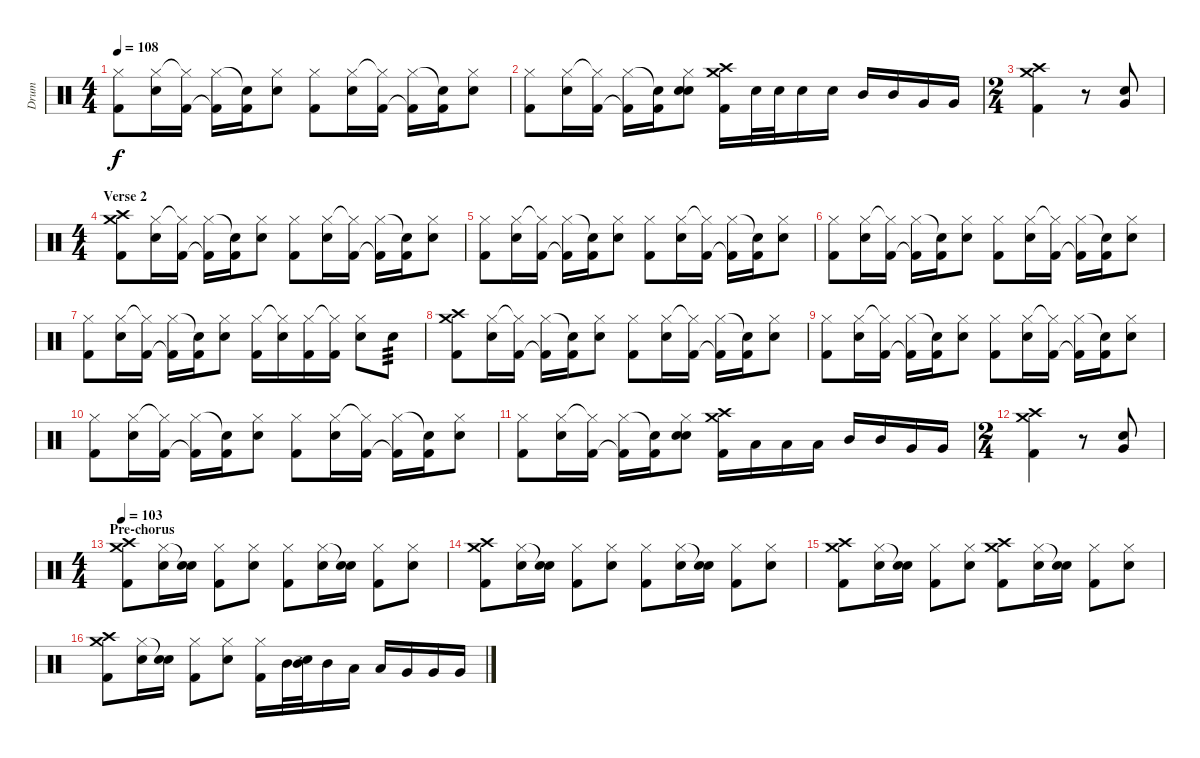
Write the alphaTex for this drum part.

\track ("Drum" "Drum") {instrument percussion}
\staff {score}
\articulation defaults
\ts (4 4)
\tempo 108
\clef neutral
\ks c
("Hi-Hat (closed)" "Kick (hit) 2").8{dy f} ("Hi-Hat (closed)" "Electric Snare (hit)").16 ("Hi-Hat (closed)"{t} "Kick (hit) 2").16 ("Hi-Hat (closed)" "Kick (hit) 2"{t}).16 ("Snare (hit)"{t} "Kick (hit) 2").16 ("Hi-Hat (closed)" "Electric Snare (hit)").8 ("Hi-Hat (closed)" "Kick (hit) 2").8 ("Hi-Hat (closed)" "Electric Snare (hit)").16 ("Hi-Hat (closed)"{t} "Kick (hit) 2").16 ("Hi-Hat (closed)" "Kick (hit) 2"{t}).16 ("Snare (hit)"{t} "Kick (hit) 2").16 ("Hi-Hat (closed)" "Electric Snare (hit)").8 |
("Hi-Hat (closed)" "Kick (hit) 2").8 ("Hi-Hat (closed)" "Electric Snare (hit)").16 ("Hi-Hat (closed)"{t} "Kick (hit) 2").16 ("Hi-Hat (closed)" "Kick (hit) 2"{t}).16 ("Snare (hit)"{t} "Kick (hit) 2").16 ("Hi-Hat (closed)" "Electric Snare (hit)" "Electric Snare (hit)").8 ("Crash medium (hit)" "Crash high (hit)" "Kick (hit) 2").16 "Electric Snare (hit)".32 "Electric Snare (hit)".32 "Electric Snare (hit)".16 "Electric Snare (hit)".16 "Mid Tom (hit)".16 "Mid Tom (hit)".16 "Very Low Tom (hit)".16 "Very Low Tom (hit)".16 |
\ts (2 4)
("Crash medium (hit)" "Crash high (hit)" "Kick (hit) 2").4 r.8 ("Very Low Tom (hit)" "Electric Snare (hit)").8 |
\ts (4 4)
\section ("" "Verse 2")
("Crash medium (hit)" "Crash high (hit)" "Kick (hit) 2").8 ("Hi-Hat (closed)" "Electric Snare (hit)").16 ("Hi-Hat (closed)"{t} "Kick (hit) 2").16 ("Hi-Hat (closed)" "Kick (hit) 2"{t}).16 ("Snare (hit)"{t} "Kick (hit) 2").16 ("Hi-Hat (closed)" "Electric Snare (hit)").8 ("Hi-Hat (closed)" "Kick (hit) 2").8 ("Hi-Hat (closed)" "Electric Snare (hit)").16 ("Hi-Hat (closed)"{t} "Kick (hit) 2").16 ("Hi-Hat (closed)" "Kick (hit) 2"{t}).16 ("Snare (hit)"{t} "Kick (hit) 2").16 ("Hi-Hat (closed)" "Electric Snare (hit)").8 |
("Hi-Hat (closed)" "Kick (hit) 2").8 ("Hi-Hat (closed)" "Electric Snare (hit)").16 ("Hi-Hat (closed)"{t} "Kick (hit) 2").16 ("Hi-Hat (closed)" "Kick (hit) 2"{t}).16 ("Snare (hit)"{t} "Kick (hit) 2").16 ("Hi-Hat (closed)" "Electric Snare (hit)").8 ("Hi-Hat (closed)" "Kick (hit) 2").8 ("Hi-Hat (closed)" "Electric Snare (hit)").16 ("Hi-Hat (closed)"{t} "Kick (hit) 2").16 ("Hi-Hat (closed)" "Kick (hit) 2"{t}).16 ("Snare (hit)"{t} "Kick (hit) 2").16 ("Hi-Hat (closed)" "Electric Snare (hit)").8 |
("Hi-Hat (closed)" "Kick (hit) 2").8 ("Hi-Hat (closed)" "Electric Snare (hit)").16 ("Hi-Hat (closed)"{t} "Kick (hit) 2").16 ("Hi-Hat (closed)" "Kick (hit) 2"{t}).16 ("Snare (hit)"{t} "Kick (hit) 2").16 ("Hi-Hat (closed)" "Electric Snare (hit)").8 ("Hi-Hat (closed)" "Kick (hit) 2").8 ("Hi-Hat (closed)" "Electric Snare (hit)").16 ("Hi-Hat (closed)"{t} "Kick (hit) 2").16 ("Hi-Hat (closed)" "Kick (hit) 2"{t}).16 ("Snare (hit)"{t} "Kick (hit) 2").16 ("Hi-Hat (closed)" "Electric Snare (hit)").8 |
("Hi-Hat (closed)" "Kick (hit) 2").8 ("Hi-Hat (closed)" "Electric Snare (hit)").16 ("Hi-Hat (closed)"{t} "Kick (hit) 2").16 ("Hi-Hat (closed)" "Kick (hit) 2"{t}).16 ("Snare (hit)"{t} "Kick (hit) 2").16 ("Hi-Hat (closed)" "Electric Snare (hit)").8 ("Hi-Hat (closed)" "Kick (hit) 2").16 ("Hi-Hat (closed)"{t} "Electric Snare (hit)").16 ("Hi-Hat (closed)" "Kick (hit) 2").16 ("Hi-Hat (closed)"{t} "Kick (hit) 2").16 ("Hi-Hat (closed)" "Electric Snare (hit)").8 "Electric Snare (hit)".8{tp 3} |
("Crash medium (hit)" "Crash high (hit)" "Kick (hit) 2").8 ("Hi-Hat (closed)" "Electric Snare (hit)").16 ("Hi-Hat (closed)"{t} "Kick (hit) 2").16 ("Hi-Hat (closed)" "Kick (hit) 2"{t}).16 ("Snare (hit)"{t} "Kick (hit) 2").16 ("Hi-Hat (closed)" "Electric Snare (hit)").8 ("Hi-Hat (closed)" "Kick (hit) 2").8 ("Hi-Hat (closed)" "Electric Snare (hit)").16 ("Hi-Hat (closed)"{t} "Kick (hit) 2").16 ("Hi-Hat (closed)" "Kick (hit) 2"{t}).16 ("Snare (hit)"{t} "Kick (hit) 2").16 ("Hi-Hat (closed)" "Electric Snare (hit)").8 |
("Hi-Hat (closed)" "Kick (hit) 2").8 ("Hi-Hat (closed)" "Electric Snare (hit)").16 ("Hi-Hat (closed)"{t} "Kick (hit) 2").16 ("Hi-Hat (closed)" "Kick (hit) 2"{t}).16 ("Snare (hit)"{t} "Kick (hit) 2").16 ("Hi-Hat (closed)" "Electric Snare (hit)").8 ("Hi-Hat (closed)" "Kick (hit) 2").8 ("Hi-Hat (closed)" "Electric Snare (hit)").16 ("Hi-Hat (closed)"{t} "Kick (hit) 2").16 ("Hi-Hat (closed)" "Kick (hit) 2"{t}).16 ("Snare (hit)"{t} "Kick (hit) 2").16 ("Hi-Hat (closed)" "Electric Snare (hit)").8 |
("Hi-Hat (closed)" "Kick (hit) 2").8 ("Hi-Hat (closed)" "Electric Snare (hit)").16 ("Hi-Hat (closed)"{t} "Kick (hit) 2").16 ("Hi-Hat (closed)" "Kick (hit) 2"{t}).16 ("Snare (hit)"{t} "Kick (hit) 2").16 ("Hi-Hat (closed)" "Electric Snare (hit)").8 ("Hi-Hat (closed)" "Kick (hit) 2").8 ("Hi-Hat (closed)" "Electric Snare (hit)").16 ("Hi-Hat (closed)"{t} "Kick (hit) 2").16 ("Hi-Hat (closed)" "Kick (hit) 2"{t}).16 ("Snare (hit)"{t} "Kick (hit) 2").16 ("Hi-Hat (closed)" "Electric Snare (hit)").8 |
("Hi-Hat (closed)" "Kick (hit) 2").8 ("Hi-Hat (closed)" "Electric Snare (hit)").16 ("Hi-Hat (closed)"{t} "Kick (hit) 2").16 ("Hi-Hat (closed)" "Kick (hit) 2"{t}).16 ("Snare (hit)"{t} "Kick (hit) 2").16 ("Hi-Hat (closed)" "Electric Snare (hit)" "Electric Snare (hit)").8 ("Crash medium (hit)" "Crash high (hit)" "Kick (hit) 2").16 "Low Tom (hit)".16 "Low Tom (hit)".16 "Low Tom (hit)".16 "Mid Tom (hit)".16 "Mid Tom (hit)".16 "Very Low Tom (hit)".16 "Very Low Tom (hit)".16 |
\ts (2 4)
("Crash medium (hit)" "Crash high (hit)" "Kick (hit) 2").4 r.8 ("Very Low Tom (hit)" "Electric Snare (hit)").8 |
\ts (4 4)
\section ("" "Pre-chorus")
\tempo 103
("Crash medium (hit)" "Crash high (hit)" "Kick (hit) 2").8 ("Hi-Hat (closed)" "Electric Snare (hit)").16 ("Snare (hit)"{t} "Electric Snare (hit)").16 ("Hi-Hat (closed)" "Kick (hit) 2").8 ("Hi-Hat (closed)" "Electric Snare (hit)").8 ("Hi-Hat (closed)" "Kick (hit) 2").8 ("Hi-Hat (closed)" "Electric Snare (hit)").16 ("Snare (hit)"{t} "Electric Snare (hit)").16 ("Hi-Hat (closed)" "Kick (hit) 2").8 ("Hi-Hat (closed)" "Electric Snare (hit)").8 |
("Crash medium (hit)" "Crash high (hit)" "Kick (hit) 2").8 ("Hi-Hat (closed)" "Electric Snare (hit)").16 ("Snare (hit)"{t} "Electric Snare (hit)").16 ("Hi-Hat (closed)" "Kick (hit) 2").8 ("Hi-Hat (closed)" "Electric Snare (hit)").8 ("Hi-Hat (closed)" "Kick (hit) 2").8 ("Hi-Hat (closed)" "Electric Snare (hit)").16 ("Snare (hit)"{t} "Electric Snare (hit)").16 ("Hi-Hat (closed)" "Kick (hit) 2").8 ("Hi-Hat (closed)" "Electric Snare (hit)").8 |
("Crash medium (hit)" "Crash high (hit)" "Kick (hit) 2").8 ("Hi-Hat (closed)" "Electric Snare (hit)").16 ("Snare (hit)"{t} "Electric Snare (hit)").16 ("Hi-Hat (closed)" "Kick (hit) 2").8 ("Hi-Hat (closed)" "Electric Snare (hit)").8 ("Crash medium (hit)" "Crash high (hit)" "Kick (hit) 2").8 ("Hi-Hat (closed)" "Electric Snare (hit)").16 ("Snare (hit)"{t} "Electric Snare (hit)").16 ("Hi-Hat (closed)" "Kick (hit) 2").8 ("Hi-Hat (closed)" "Electric Snare (hit)").8 |
("Crash medium (hit)" "Crash high (hit)" "Kick (hit) 2").8 ("Hi-Hat (closed)" "Electric Snare (hit)").16 ("Snare (hit)"{t} "Electric Snare (hit)").16 ("Hi-Hat (closed)" "Kick (hit) 2").8 ("Hi-Hat (closed)" "Electric Snare (hit)").8 ("Hi-Hat (closed)" "Kick (hit) 2").16 "Mid Tom (hit)".32 ("Snare (hit)"{t} "Mid Tom (hit)").32 "Mid Tom (hit)".16 "Low Tom (hit)".16 "Low Tom (hit)".16 "Very Low Tom (hit)".16 "Very Low Tom (hit)".16 "Very Low Tom (hit)".16
